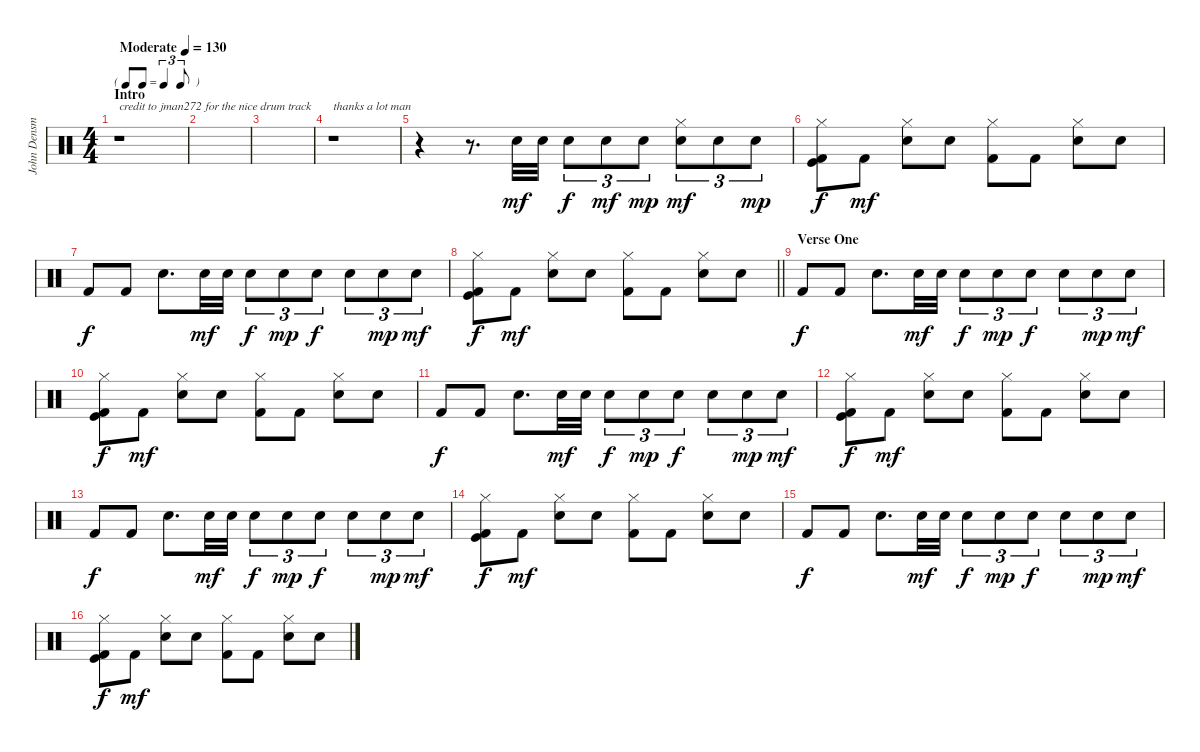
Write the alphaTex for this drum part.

\track ("John Densmore" "John Densm") {instrument percussion}
\staff {score}
\articulation defaults
\ts (4 4)
\tf triplet8th
\section ("" "Intro")
\tempo (130 "Moderate")
\clef neutral
\ks c
r.1{txt "credit to jman272 for the nice drum track" dy mf} |
|
|
r.1{txt "thanks a lot man"} |
r.4 r.8{d} "Snare (hit) 2".32 "Electric Snare (hit)".32 "Electric Snare (hit)".8{tu (3 2) dy f} "Electric Snare (hit)".8{tu (3 2) dy mf} "Electric Snare (hit)".8{tu (3 2) dy mp} ("Snare (hit) 2" "Hi-Hat (closed)").8{tu (3 2) dy mf} "Snare (hit) 2".8{tu (3 2)} "Snare (hit) 2".8{tu (3 2) dy mp} |
("Kick (hit) 2" "Hi-Hat (closed)" "Kick (hit)").8{dy f} "Kick (hit) 2".8{dy mf} ("Electric Snare (hit)" "Hi-Hat (closed)").8 "Electric Snare (hit)".8 ("Kick (hit) 2" "Hi-Hat (closed)").8 "Kick (hit) 2".8 ("Electric Snare (hit)" "Hi-Hat (closed)").8 "Electric Snare (hit)".8 |
"Kick (hit) 2".8{dy f} "Kick (hit) 2".8 "Electric Snare (hit)".8{d} "Snare (hit) 2".32{dy mf} "Electric Snare (hit)".32 "Electric Snare (hit)".8{tu (3 2) dy f} "Electric Snare (hit)".8{tu (3 2) dy mp} "Electric Snare (hit)".8{tu (3 2) dy f} "Snare (hit) 2".8{tu (3 2)} "Snare (hit) 2".8{tu (3 2) dy mp} "Snare (hit) 2".8{tu (3 2) dy mf} |
\barLineRight lightlight
("Kick (hit) 2" "Hi-Hat (closed)" "Kick (hit)").8{dy f} "Kick (hit) 2".8{dy mf} ("Electric Snare (hit)" "Hi-Hat (closed)").8 "Electric Snare (hit)".8 ("Kick (hit) 2" "Hi-Hat (closed)").8 "Kick (hit) 2".8 ("Electric Snare (hit)" "Hi-Hat (closed)").8 "Electric Snare (hit)".8 |
\section ("" "Verse One")
"Kick (hit) 2".8{dy f} "Kick (hit) 2".8 "Electric Snare (hit)".8{d} "Snare (hit) 2".32{dy mf} "Electric Snare (hit)".32 "Electric Snare (hit)".8{tu (3 2) dy f} "Electric Snare (hit)".8{tu (3 2) dy mp} "Electric Snare (hit)".8{tu (3 2) dy f} "Snare (hit) 2".8{tu (3 2)} "Snare (hit) 2".8{tu (3 2) dy mp} "Snare (hit) 2".8{tu (3 2) dy mf} |
("Kick (hit) 2" "Hi-Hat (closed)" "Kick (hit)").8{dy f} "Kick (hit) 2".8{dy mf} ("Electric Snare (hit)" "Hi-Hat (closed)").8 "Electric Snare (hit)".8 ("Kick (hit) 2" "Hi-Hat (closed)").8 "Kick (hit) 2".8 ("Electric Snare (hit)" "Hi-Hat (closed)").8 "Electric Snare (hit)".8 |
"Kick (hit) 2".8{dy f} "Kick (hit) 2".8 "Electric Snare (hit)".8{d} "Snare (hit) 2".32{dy mf} "Electric Snare (hit)".32 "Electric Snare (hit)".8{tu (3 2) dy f} "Electric Snare (hit)".8{tu (3 2) dy mp} "Electric Snare (hit)".8{tu (3 2) dy f} "Snare (hit) 2".8{tu (3 2)} "Snare (hit) 2".8{tu (3 2) dy mp} "Snare (hit) 2".8{tu (3 2) dy mf} |
("Kick (hit) 2" "Hi-Hat (closed)" "Kick (hit)").8{dy f} "Kick (hit) 2".8{dy mf} ("Electric Snare (hit)" "Hi-Hat (closed)").8 "Electric Snare (hit)".8 ("Kick (hit) 2" "Hi-Hat (closed)").8 "Kick (hit) 2".8 ("Electric Snare (hit)" "Hi-Hat (closed)").8 "Electric Snare (hit)".8 |
"Kick (hit) 2".8{dy f} "Kick (hit) 2".8 "Electric Snare (hit)".8{d} "Snare (hit) 2".32{dy mf} "Electric Snare (hit)".32 "Electric Snare (hit)".8{tu (3 2) dy f} "Electric Snare (hit)".8{tu (3 2) dy mp} "Electric Snare (hit)".8{tu (3 2) dy f} "Snare (hit) 2".8{tu (3 2)} "Snare (hit) 2".8{tu (3 2) dy mp} "Snare (hit) 2".8{tu (3 2) dy mf} |
("Kick (hit) 2" "Hi-Hat (closed)" "Kick (hit)").8{dy f} "Kick (hit) 2".8{dy mf} ("Electric Snare (hit)" "Hi-Hat (closed)").8 "Electric Snare (hit)".8 ("Kick (hit) 2" "Hi-Hat (closed)").8 "Kick (hit) 2".8 ("Electric Snare (hit)" "Hi-Hat (closed)").8 "Electric Snare (hit)".8 |
"Kick (hit) 2".8{dy f} "Kick (hit) 2".8 "Electric Snare (hit)".8{d} "Snare (hit) 2".32{dy mf} "Electric Snare (hit)".32 "Electric Snare (hit)".8{tu (3 2) dy f} "Electric Snare (hit)".8{tu (3 2) dy mp} "Electric Snare (hit)".8{tu (3 2) dy f} "Snare (hit) 2".8{tu (3 2)} "Snare (hit) 2".8{tu (3 2) dy mp} "Snare (hit) 2".8{tu (3 2) dy mf} |
("Kick (hit) 2" "Hi-Hat (closed)" "Kick (hit)").8{dy f} "Kick (hit) 2".8{dy mf} ("Electric Snare (hit)" "Hi-Hat (closed)").8 "Electric Snare (hit)".8 ("Kick (hit) 2" "Hi-Hat (closed)").8 "Kick (hit) 2".8 ("Electric Snare (hit)" "Hi-Hat (closed)").8 "Electric Snare (hit)".8
